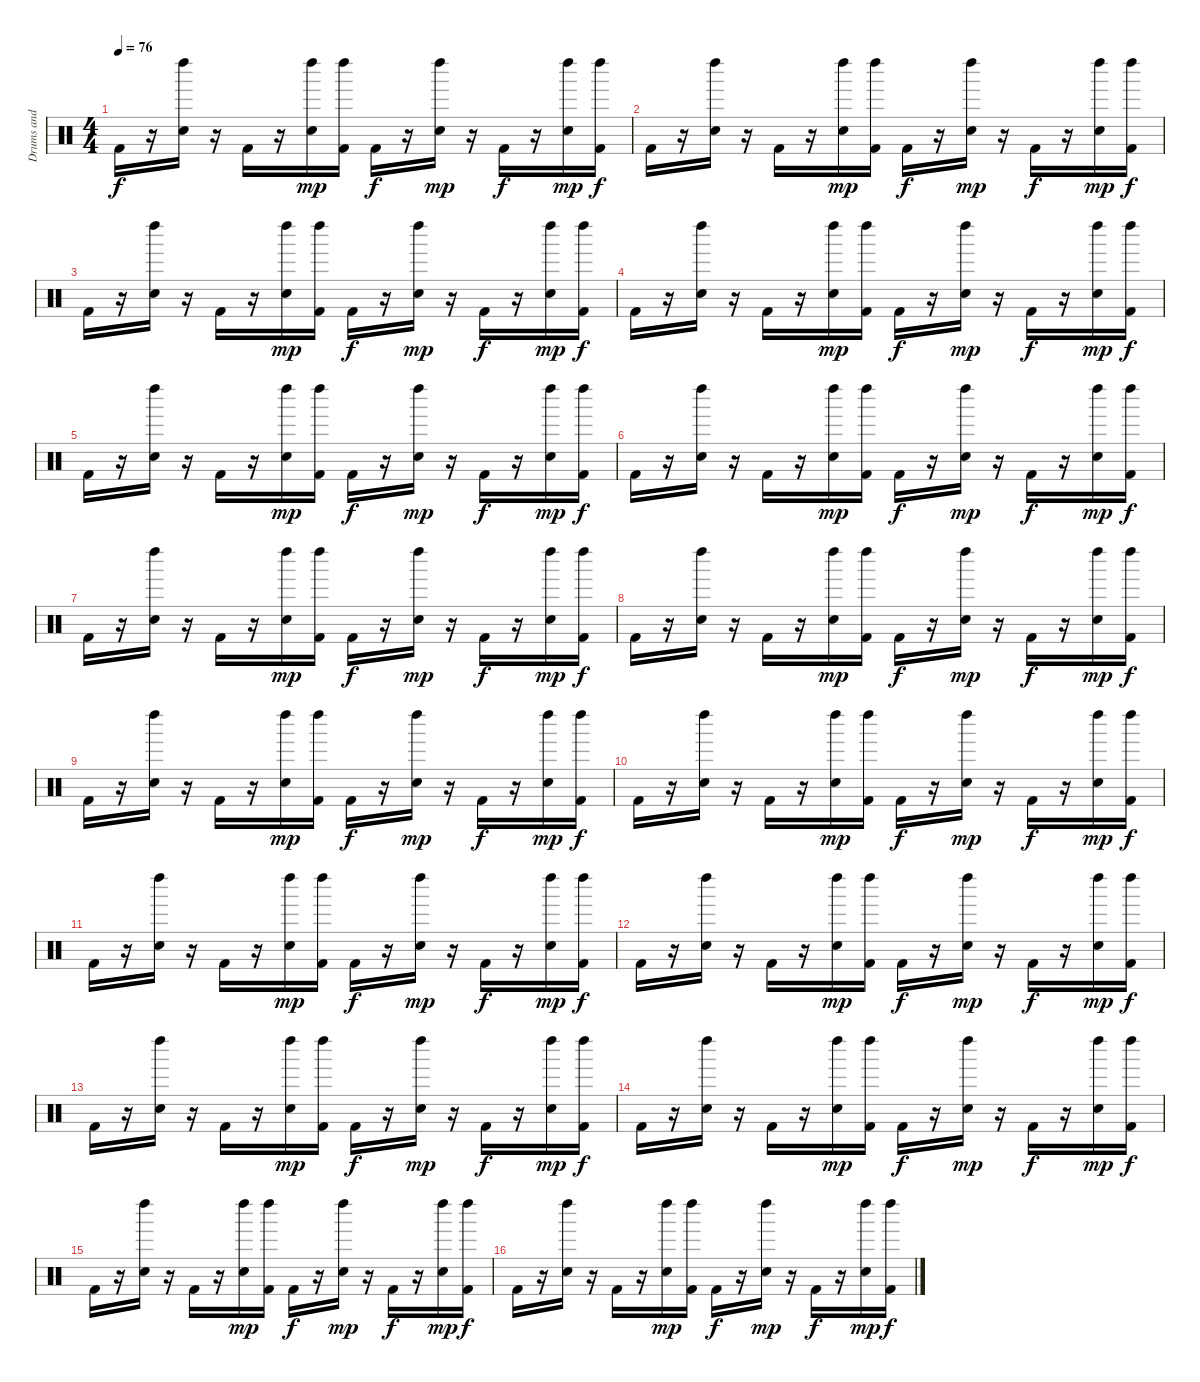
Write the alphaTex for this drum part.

\track ("Drums and Percussion" "Drums and ") {instrument percussion}
\staff {score}
\articulation defaults
\ts (4 4)
\tempo 76
\clef neutral
\ks c "Kick (hit) 2".16{dy f}
r.16 ("Snare (hit) 2" "Left Maraca (hit)").16 r.16 "Kick (hit) 2".16 r.16 ("Snare (hit) 2" "Left Maraca (hit)").16{dy mp} ("Left Maraca (hit)" "Kick (hit) 2").16 "Kick (hit) 2".16{dy f} r.16 ("Snare (hit) 2" "Left Maraca (hit)").16{dy mp} r.16 "Kick (hit) 2".16{dy f} r.16 ("Snare (hit) 2" "Left Maraca (hit)").16{dy mp} ("Left Maraca (hit)" "Kick (hit) 2").16{dy f} |
"Kick (hit) 2".16 r.16 ("Snare (hit) 2" "Left Maraca (hit)").16 r.16 "Kick (hit) 2".16 r.16 ("Snare (hit) 2" "Left Maraca (hit)").16{dy mp} ("Left Maraca (hit)" "Kick (hit) 2").16 "Kick (hit) 2".16{dy f} r.16 ("Snare (hit) 2" "Left Maraca (hit)").16{dy mp} r.16 "Kick (hit) 2".16{dy f} r.16 ("Snare (hit) 2" "Left Maraca (hit)").16{dy mp} ("Left Maraca (hit)" "Kick (hit) 2").16{dy f} |
"Kick (hit) 2".16 r.16 ("Snare (hit) 2" "Left Maraca (hit)").16 r.16 "Kick (hit) 2".16 r.16 ("Snare (hit) 2" "Left Maraca (hit)").16{dy mp} ("Left Maraca (hit)" "Kick (hit) 2").16 "Kick (hit) 2".16{dy f} r.16 ("Snare (hit) 2" "Left Maraca (hit)").16{dy mp} r.16 "Kick (hit) 2".16{dy f} r.16 ("Snare (hit) 2" "Left Maraca (hit)").16{dy mp} ("Left Maraca (hit)" "Kick (hit) 2").16{dy f} |
"Kick (hit) 2".16 r.16 ("Snare (hit) 2" "Left Maraca (hit)").16 r.16 "Kick (hit) 2".16 r.16 ("Snare (hit) 2" "Left Maraca (hit)").16{dy mp} ("Left Maraca (hit)" "Kick (hit) 2").16 "Kick (hit) 2".16{dy f} r.16 ("Snare (hit) 2" "Left Maraca (hit)").16{dy mp} r.16 "Kick (hit) 2".16{dy f} r.16 ("Snare (hit) 2" "Left Maraca (hit)").16{dy mp} ("Left Maraca (hit)" "Kick (hit) 2").16{dy f} |
"Kick (hit) 2".16 r.16 ("Snare (hit) 2" "Left Maraca (hit)").16 r.16 "Kick (hit) 2".16 r.16 ("Snare (hit) 2" "Left Maraca (hit)").16{dy mp} ("Left Maraca (hit)" "Kick (hit) 2").16 "Kick (hit) 2".16{dy f} r.16 ("Snare (hit) 2" "Left Maraca (hit)").16{dy mp} r.16 "Kick (hit) 2".16{dy f} r.16 ("Snare (hit) 2" "Left Maraca (hit)").16{dy mp} ("Left Maraca (hit)" "Kick (hit) 2").16{dy f} |
"Kick (hit) 2".16 r.16 ("Snare (hit) 2" "Left Maraca (hit)").16 r.16 "Kick (hit) 2".16 r.16 ("Snare (hit) 2" "Left Maraca (hit)").16{dy mp} ("Left Maraca (hit)" "Kick (hit) 2").16 "Kick (hit) 2".16{dy f} r.16 ("Snare (hit) 2" "Left Maraca (hit)").16{dy mp} r.16 "Kick (hit) 2".16{dy f} r.16 ("Snare (hit) 2" "Left Maraca (hit)").16{dy mp} ("Left Maraca (hit)" "Kick (hit) 2").16{dy f} |
"Kick (hit) 2".16 r.16 ("Snare (hit) 2" "Left Maraca (hit)").16 r.16 "Kick (hit) 2".16 r.16 ("Snare (hit) 2" "Left Maraca (hit)").16{dy mp} ("Left Maraca (hit)" "Kick (hit) 2").16 "Kick (hit) 2".16{dy f} r.16 ("Snare (hit) 2" "Left Maraca (hit)").16{dy mp} r.16 "Kick (hit) 2".16{dy f} r.16 ("Snare (hit) 2" "Left Maraca (hit)").16{dy mp} ("Left Maraca (hit)" "Kick (hit) 2").16{dy f} |
"Kick (hit) 2".16 r.16 ("Snare (hit) 2" "Left Maraca (hit)").16 r.16 "Kick (hit) 2".16 r.16 ("Snare (hit) 2" "Left Maraca (hit)").16{dy mp} ("Left Maraca (hit)" "Kick (hit) 2").16 "Kick (hit) 2".16{dy f} r.16 ("Snare (hit) 2" "Left Maraca (hit)").16{dy mp} r.16 "Kick (hit) 2".16{dy f} r.16 ("Snare (hit) 2" "Left Maraca (hit)").16{dy mp} ("Left Maraca (hit)" "Kick (hit) 2").16{dy f} |
"Kick (hit) 2".16 r.16 ("Snare (hit) 2" "Left Maraca (hit)").16 r.16 "Kick (hit) 2".16 r.16 ("Snare (hit) 2" "Left Maraca (hit)").16{dy mp} ("Left Maraca (hit)" "Kick (hit) 2").16 "Kick (hit) 2".16{dy f} r.16 ("Snare (hit) 2" "Left Maraca (hit)").16{dy mp} r.16 "Kick (hit) 2".16{dy f} r.16 ("Snare (hit) 2" "Left Maraca (hit)").16{dy mp} ("Left Maraca (hit)" "Kick (hit) 2").16{dy f} |
"Kick (hit) 2".16 r.16 ("Snare (hit) 2" "Left Maraca (hit)").16 r.16 "Kick (hit) 2".16 r.16 ("Snare (hit) 2" "Left Maraca (hit)").16{dy mp} ("Left Maraca (hit)" "Kick (hit) 2").16 "Kick (hit) 2".16{dy f} r.16 ("Snare (hit) 2" "Left Maraca (hit)").16{dy mp} r.16 "Kick (hit) 2".16{dy f} r.16 ("Snare (hit) 2" "Left Maraca (hit)").16{dy mp} ("Left Maraca (hit)" "Kick (hit) 2").16{dy f} |
"Kick (hit) 2".16 r.16 ("Snare (hit) 2" "Left Maraca (hit)").16 r.16 "Kick (hit) 2".16 r.16 ("Snare (hit) 2" "Left Maraca (hit)").16{dy mp} ("Left Maraca (hit)" "Kick (hit) 2").16 "Kick (hit) 2".16{dy f} r.16 ("Snare (hit) 2" "Left Maraca (hit)").16{dy mp} r.16 "Kick (hit) 2".16{dy f} r.16 ("Snare (hit) 2" "Left Maraca (hit)").16{dy mp} ("Left Maraca (hit)" "Kick (hit) 2").16{dy f} |
"Kick (hit) 2".16 r.16 ("Snare (hit) 2" "Left Maraca (hit)").16 r.16 "Kick (hit) 2".16 r.16 ("Snare (hit) 2" "Left Maraca (hit)").16{dy mp} ("Left Maraca (hit)" "Kick (hit) 2").16 "Kick (hit) 2".16{dy f} r.16 ("Snare (hit) 2" "Left Maraca (hit)").16{dy mp} r.16 "Kick (hit) 2".16{dy f} r.16 ("Snare (hit) 2" "Left Maraca (hit)").16{dy mp} ("Left Maraca (hit)" "Kick (hit) 2").16{dy f} |
"Kick (hit) 2".16 r.16 ("Snare (hit) 2" "Left Maraca (hit)").16 r.16 "Kick (hit) 2".16 r.16 ("Snare (hit) 2" "Left Maraca (hit)").16{dy mp} ("Left Maraca (hit)" "Kick (hit) 2").16 "Kick (hit) 2".16{dy f} r.16 ("Snare (hit) 2" "Left Maraca (hit)").16{dy mp} r.16 "Kick (hit) 2".16{dy f} r.16 ("Snare (hit) 2" "Left Maraca (hit)").16{dy mp} ("Left Maraca (hit)" "Kick (hit) 2").16{dy f} |
"Kick (hit) 2".16 r.16 ("Snare (hit) 2" "Left Maraca (hit)").16 r.16 "Kick (hit) 2".16 r.16 ("Snare (hit) 2" "Left Maraca (hit)").16{dy mp} ("Left Maraca (hit)" "Kick (hit) 2").16 "Kick (hit) 2".16{dy f} r.16 ("Snare (hit) 2" "Left Maraca (hit)").16{dy mp} r.16 "Kick (hit) 2".16{dy f} r.16 ("Snare (hit) 2" "Left Maraca (hit)").16{dy mp} ("Left Maraca (hit)" "Kick (hit) 2").16{dy f} |
"Kick (hit) 2".16 r.16 ("Snare (hit) 2" "Left Maraca (hit)").16 r.16 "Kick (hit) 2".16 r.16 ("Snare (hit) 2" "Left Maraca (hit)").16{dy mp} ("Left Maraca (hit)" "Kick (hit) 2").16 "Kick (hit) 2".16{dy f} r.16 ("Snare (hit) 2" "Left Maraca (hit)").16{dy mp} r.16 "Kick (hit) 2".16{dy f} r.16 ("Snare (hit) 2" "Left Maraca (hit)").16{dy mp} ("Left Maraca (hit)" "Kick (hit) 2").16{dy f} |
"Kick (hit) 2".16 r.16 ("Snare (hit) 2" "Left Maraca (hit)").16 r.16 "Kick (hit) 2".16 r.16 ("Snare (hit) 2" "Left Maraca (hit)").16{dy mp} ("Left Maraca (hit)" "Kick (hit) 2").16 "Kick (hit) 2".16{dy f} r.16 ("Snare (hit) 2" "Left Maraca (hit)").16{dy mp} r.16 "Kick (hit) 2".16{dy f} r.16 ("Snare (hit) 2" "Left Maraca (hit)").16{dy mp} ("Left Maraca (hit)" "Kick (hit) 2").16{dy f}
